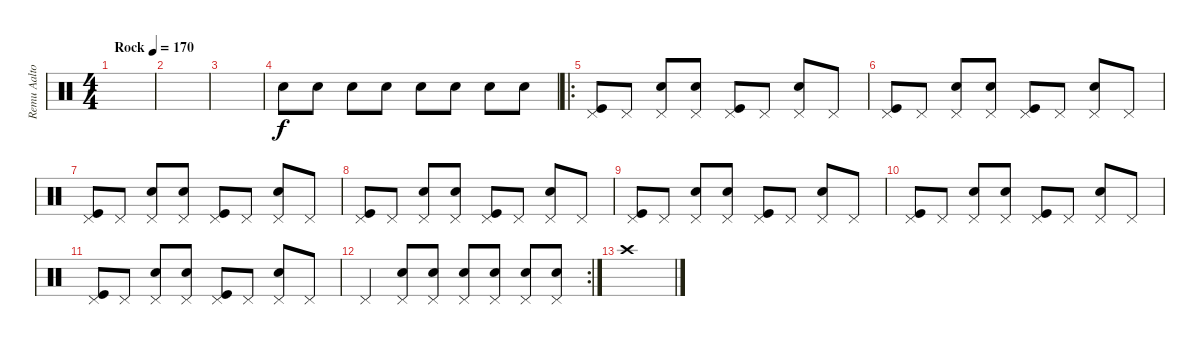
\track ("Remu Aaltonen" "Remu Aalto") {instrument percussion}
\staff {score}
\articulation defaults
\ts (4 4)
\tempo (170 "Rock")
\clef neutral
\ks c
|
|
|
"Snare (hit)".8 "Snare (hit)".8 "Snare (hit)".8 "Snare (hit)".8 "Snare (hit)".8 "Snare (hit) 2".8 "Snare (hit) 2".8 "Snare (hit) 2".8 |
\ro
("Pedal Hi-Hat (hit)" "Kick (hit)").8 "Pedal Hi-Hat (hit)".8 ("Pedal Hi-Hat (hit)" "Snare (hit) 2").8 ("Pedal Hi-Hat (hit)" "Snare (hit) 2").8 ("Pedal Hi-Hat (hit)" "Kick (hit)").8 "Pedal Hi-Hat (hit)".8 ("Pedal Hi-Hat (hit)" "Snare (hit) 2").8 "Pedal Hi-Hat (hit)".8 |
("Pedal Hi-Hat (hit)" "Kick (hit)").8 "Pedal Hi-Hat (hit)".8 ("Pedal Hi-Hat (hit)" "Snare (hit) 2").8 ("Pedal Hi-Hat (hit)" "Snare (hit) 2").8 ("Pedal Hi-Hat (hit)" "Kick (hit)").8 "Pedal Hi-Hat (hit)".8 ("Pedal Hi-Hat (hit)" "Snare (hit) 2").8 "Pedal Hi-Hat (hit)".8 |
("Pedal Hi-Hat (hit)" "Kick (hit)").8 "Pedal Hi-Hat (hit)".8 ("Pedal Hi-Hat (hit)" "Snare (hit) 2").8 ("Pedal Hi-Hat (hit)" "Snare (hit) 2").8 ("Pedal Hi-Hat (hit)" "Kick (hit)").8 "Pedal Hi-Hat (hit)".8 ("Pedal Hi-Hat (hit)" "Snare (hit) 2").8 "Pedal Hi-Hat (hit)".8 |
("Pedal Hi-Hat (hit)" "Kick (hit)").8 "Pedal Hi-Hat (hit)".8 ("Pedal Hi-Hat (hit)" "Snare (hit) 2").8 ("Pedal Hi-Hat (hit)" "Snare (hit) 2").8 ("Pedal Hi-Hat (hit)" "Kick (hit)").8 "Pedal Hi-Hat (hit)".8 ("Pedal Hi-Hat (hit)" "Snare (hit) 2").8 "Pedal Hi-Hat (hit)".8 |
("Pedal Hi-Hat (hit)" "Kick (hit)").8 "Pedal Hi-Hat (hit)".8 ("Pedal Hi-Hat (hit)" "Snare (hit) 2").8 ("Pedal Hi-Hat (hit)" "Snare (hit) 2").8 ("Pedal Hi-Hat (hit)" "Kick (hit)").8 "Pedal Hi-Hat (hit)".8 ("Pedal Hi-Hat (hit)" "Snare (hit) 2").8 "Pedal Hi-Hat (hit)".8 |
("Pedal Hi-Hat (hit)" "Kick (hit)").8 "Pedal Hi-Hat (hit)".8 ("Pedal Hi-Hat (hit)" "Snare (hit) 2").8 ("Pedal Hi-Hat (hit)" "Snare (hit) 2").8 ("Pedal Hi-Hat (hit)" "Kick (hit)").8 "Pedal Hi-Hat (hit)".8 ("Pedal Hi-Hat (hit)" "Snare (hit) 2").8 "Pedal Hi-Hat (hit)".8 |
("Pedal Hi-Hat (hit)" "Kick (hit)").8 "Pedal Hi-Hat (hit)".8 ("Pedal Hi-Hat (hit)" "Snare (hit) 2").8 ("Pedal Hi-Hat (hit)" "Snare (hit) 2").8 ("Pedal Hi-Hat (hit)" "Kick (hit)").8 "Pedal Hi-Hat (hit)".8 ("Pedal Hi-Hat (hit)" "Snare (hit) 2").8 "Pedal Hi-Hat (hit)".8 |
\rc 2 "Pedal Hi-Hat (hit)".4
("Pedal Hi-Hat (hit)" "Snare (hit) 2").8 ("Pedal Hi-Hat (hit)" "Snare (hit) 2").8 ("Pedal Hi-Hat (hit)" "Snare (hit) 2").8 ("Pedal Hi-Hat (hit)" "Snare (hit) 2").8 ("Pedal Hi-Hat (hit)" "Snare (hit) 2").8 ("Pedal Hi-Hat (hit)" "Snare (hit) 2").8 |
"Crash high (hit)".1
